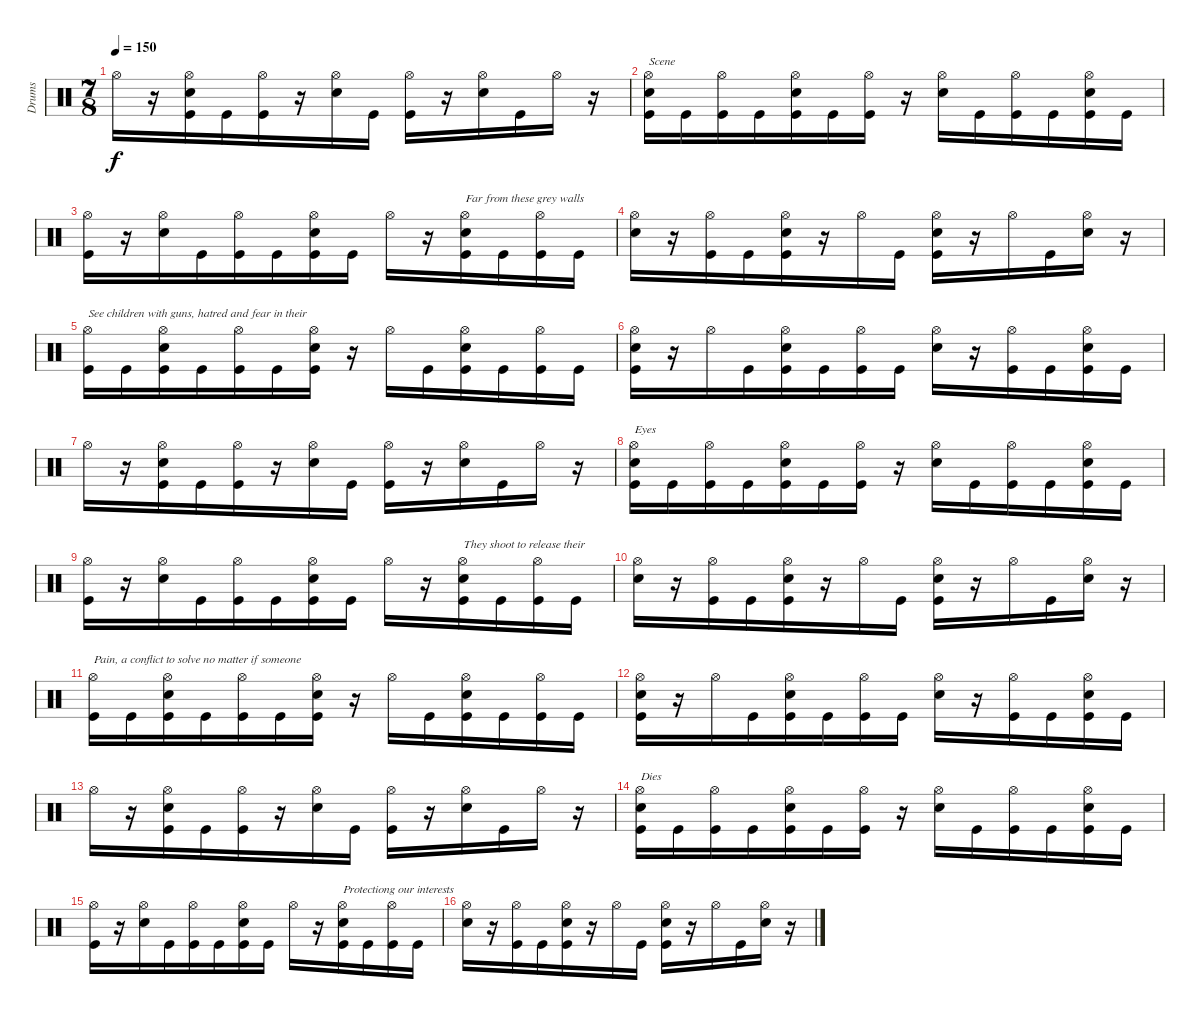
\track ("Drums" "Drums") {instrument percussion}
\staff {score}
\articulation defaults
\ts (7 8)
\tempo 150
\clef neutral
\ks c "Hi-Hat (open)".16{dy f}
r.16 ("Hi-Hat (open)" "Snare (hit) 2" "Kick (hit)").16 "Kick (hit)".16 ("Hi-Hat (open)" "Kick (hit)").16 r.16 ("Hi-Hat (open)" "Snare (hit) 2").16 "Kick (hit)".16 ("Hi-Hat (open)" "Kick (hit)").16 r.16 ("Hi-Hat (open)" "Snare (hit) 2").16 "Kick (hit)".16 "Hi-Hat (open)".16 r.16 |
("Hi-Hat (open)" "Snare (hit) 2" "Kick (hit)").16{txt "Scene"} "Kick (hit)".16 ("Hi-Hat (open)" "Kick (hit)").16 "Kick (hit)".16 ("Hi-Hat (open)" "Snare (hit) 2" "Kick (hit)").16 "Kick (hit)".16 ("Hi-Hat (open)" "Kick (hit)").16 r.16 ("Hi-Hat (open)" "Snare (hit) 2").16 "Kick (hit)".16 ("Hi-Hat (open)" "Kick (hit)").16 "Kick (hit)".16 ("Hi-Hat (open)" "Snare (hit) 2" "Kick (hit)").16 "Kick (hit)".16 |
("Hi-Hat (open)" "Kick (hit)").16 r.16 ("Hi-Hat (open)" "Snare (hit) 2").16 "Kick (hit)".16 ("Hi-Hat (open)" "Kick (hit)").16 "Kick (hit)".16 ("Hi-Hat (open)" "Snare (hit) 2" "Kick (hit)").16 "Kick (hit)".16 "Hi-Hat (open)".16 r.16 ("Hi-Hat (open)" "Snare (hit) 2" "Kick (hit)").16{txt "Far from these grey walls"} "Kick (hit)".16 ("Hi-Hat (open)" "Kick (hit)").16 "Kick (hit)".16 |
("Hi-Hat (open)" "Snare (hit) 2").16 r.16 ("Hi-Hat (open)" "Kick (hit)").16 "Kick (hit)".16 ("Hi-Hat (open)" "Snare (hit) 2" "Kick (hit)").16 r.16 "Hi-Hat (open)".16 "Kick (hit)".16 ("Hi-Hat (open)" "Snare (hit) 2" "Kick (hit)").16 r.16 "Hi-Hat (open)".16 "Kick (hit)".16 ("Hi-Hat (open)" "Snare (hit) 2").16 r.16 |
("Hi-Hat (open)" "Kick (hit)").16{txt "See children with guns, hatred and fear in their"} "Kick (hit)".16 ("Hi-Hat (open)" "Snare (hit) 2" "Kick (hit)").16 "Kick (hit)".16 ("Hi-Hat (open)" "Kick (hit)").16 "Kick (hit)".16 ("Hi-Hat (open)" "Snare (hit) 2" "Kick (hit)").16 r.16 "Hi-Hat (open)".16 "Kick (hit)".16 ("Hi-Hat (open)" "Snare (hit) 2" "Kick (hit)").16 "Kick (hit)".16 ("Hi-Hat (open)" "Kick (hit)").16 "Kick (hit)".16 |
("Hi-Hat (open)" "Snare (hit) 2" "Kick (hit)").16 r.16 "Hi-Hat (open)".16 "Kick (hit)".16 ("Hi-Hat (open)" "Snare (hit) 2" "Kick (hit)").16 "Kick (hit)".16 ("Hi-Hat (open)" "Kick (hit)").16 "Kick (hit)".16 ("Hi-Hat (open)" "Snare (hit) 2").16 r.16 ("Hi-Hat (open)" "Kick (hit)").16 "Kick (hit)".16 ("Hi-Hat (open)" "Snare (hit) 2" "Kick (hit)").16 "Kick (hit)".16 |
"Hi-Hat (open)".16 r.16 ("Hi-Hat (open)" "Snare (hit) 2" "Kick (hit)").16 "Kick (hit)".16 ("Hi-Hat (open)" "Kick (hit)").16 r.16 ("Hi-Hat (open)" "Snare (hit) 2").16 "Kick (hit)".16 ("Hi-Hat (open)" "Kick (hit)").16 r.16 ("Hi-Hat (open)" "Snare (hit) 2").16 "Kick (hit)".16 "Hi-Hat (open)".16 r.16 |
("Hi-Hat (open)" "Snare (hit) 2" "Kick (hit)").16{txt "Eyes"} "Kick (hit)".16 ("Hi-Hat (open)" "Kick (hit)").16 "Kick (hit)".16 ("Hi-Hat (open)" "Snare (hit) 2" "Kick (hit)").16 "Kick (hit)".16 ("Hi-Hat (open)" "Kick (hit)").16 r.16 ("Hi-Hat (open)" "Snare (hit) 2").16 "Kick (hit)".16 ("Hi-Hat (open)" "Kick (hit)").16 "Kick (hit)".16 ("Hi-Hat (open)" "Snare (hit) 2" "Kick (hit)").16 "Kick (hit)".16 |
("Hi-Hat (open)" "Kick (hit)").16 r.16 ("Hi-Hat (open)" "Snare (hit) 2").16 "Kick (hit)".16 ("Hi-Hat (open)" "Kick (hit)").16 "Kick (hit)".16 ("Hi-Hat (open)" "Snare (hit) 2" "Kick (hit)").16 "Kick (hit)".16 "Hi-Hat (open)".16 r.16 ("Hi-Hat (open)" "Snare (hit) 2" "Kick (hit)").16{txt "They shoot to release their "} "Kick (hit)".16 ("Hi-Hat (open)" "Kick (hit)").16 "Kick (hit)".16 |
("Hi-Hat (open)" "Snare (hit) 2").16 r.16 ("Hi-Hat (open)" "Kick (hit)").16 "Kick (hit)".16 ("Hi-Hat (open)" "Snare (hit) 2" "Kick (hit)").16 r.16 "Hi-Hat (open)".16 "Kick (hit)".16 ("Hi-Hat (open)" "Snare (hit) 2" "Kick (hit)").16 r.16 "Hi-Hat (open)".16 "Kick (hit)".16 ("Hi-Hat (open)" "Snare (hit) 2").16 r.16 |
("Hi-Hat (open)" "Kick (hit)").16{txt "Pain, a conflict to solve no matter if someone"} "Kick (hit)".16 ("Hi-Hat (open)" "Snare (hit) 2" "Kick (hit)").16 "Kick (hit)".16 ("Hi-Hat (open)" "Kick (hit)").16 "Kick (hit)".16 ("Hi-Hat (open)" "Snare (hit) 2" "Kick (hit)").16 r.16 "Hi-Hat (open)".16 "Kick (hit)".16 ("Hi-Hat (open)" "Snare (hit) 2" "Kick (hit)").16 "Kick (hit)".16 ("Hi-Hat (open)" "Kick (hit)").16 "Kick (hit)".16 |
("Hi-Hat (open)" "Snare (hit) 2" "Kick (hit)").16 r.16 "Hi-Hat (open)".16 "Kick (hit)".16 ("Hi-Hat (open)" "Snare (hit) 2" "Kick (hit)").16 "Kick (hit)".16 ("Hi-Hat (open)" "Kick (hit)").16 "Kick (hit)".16 ("Hi-Hat (open)" "Snare (hit) 2").16 r.16 ("Hi-Hat (open)" "Kick (hit)").16 "Kick (hit)".16 ("Hi-Hat (open)" "Snare (hit) 2" "Kick (hit)").16 "Kick (hit)".16 |
"Hi-Hat (open)".16 r.16 ("Hi-Hat (open)" "Snare (hit) 2" "Kick (hit)").16 "Kick (hit)".16 ("Hi-Hat (open)" "Kick (hit)").16 r.16 ("Hi-Hat (open)" "Snare (hit) 2").16 "Kick (hit)".16 ("Hi-Hat (open)" "Kick (hit)").16 r.16 ("Hi-Hat (open)" "Snare (hit) 2").16 "Kick (hit)".16 "Hi-Hat (open)".16 r.16 |
("Hi-Hat (open)" "Snare (hit) 2" "Kick (hit)").16{txt "Dies"} "Kick (hit)".16 ("Hi-Hat (open)" "Kick (hit)").16 "Kick (hit)".16 ("Hi-Hat (open)" "Snare (hit) 2" "Kick (hit)").16 "Kick (hit)".16 ("Hi-Hat (open)" "Kick (hit)").16 r.16 ("Hi-Hat (open)" "Snare (hit) 2").16 "Kick (hit)".16 ("Hi-Hat (open)" "Kick (hit)").16 "Kick (hit)".16 ("Hi-Hat (open)" "Snare (hit) 2" "Kick (hit)").16 "Kick (hit)".16 |
("Hi-Hat (open)" "Kick (hit)").16 r.16 ("Hi-Hat (open)" "Snare (hit) 2").16 "Kick (hit)".16 ("Hi-Hat (open)" "Kick (hit)").16 "Kick (hit)".16 ("Hi-Hat (open)" "Snare (hit) 2" "Kick (hit)").16 "Kick (hit)".16 "Hi-Hat (open)".16 r.16 ("Hi-Hat (open)" "Snare (hit) 2" "Kick (hit)").16{txt "Protectiong our interests"} "Kick (hit)".16 ("Hi-Hat (open)" "Kick (hit)").16 "Kick (hit)".16 |
("Hi-Hat (open)" "Snare (hit) 2").16 r.16 ("Hi-Hat (open)" "Kick (hit)").16 "Kick (hit)".16 ("Hi-Hat (open)" "Snare (hit) 2" "Kick (hit)").16 r.16 "Hi-Hat (open)".16 "Kick (hit)".16 ("Hi-Hat (open)" "Snare (hit) 2" "Kick (hit)").16 r.16 "Hi-Hat (open)".16 "Kick (hit)".16 ("Hi-Hat (open)" "Snare (hit) 2").16 r.16
